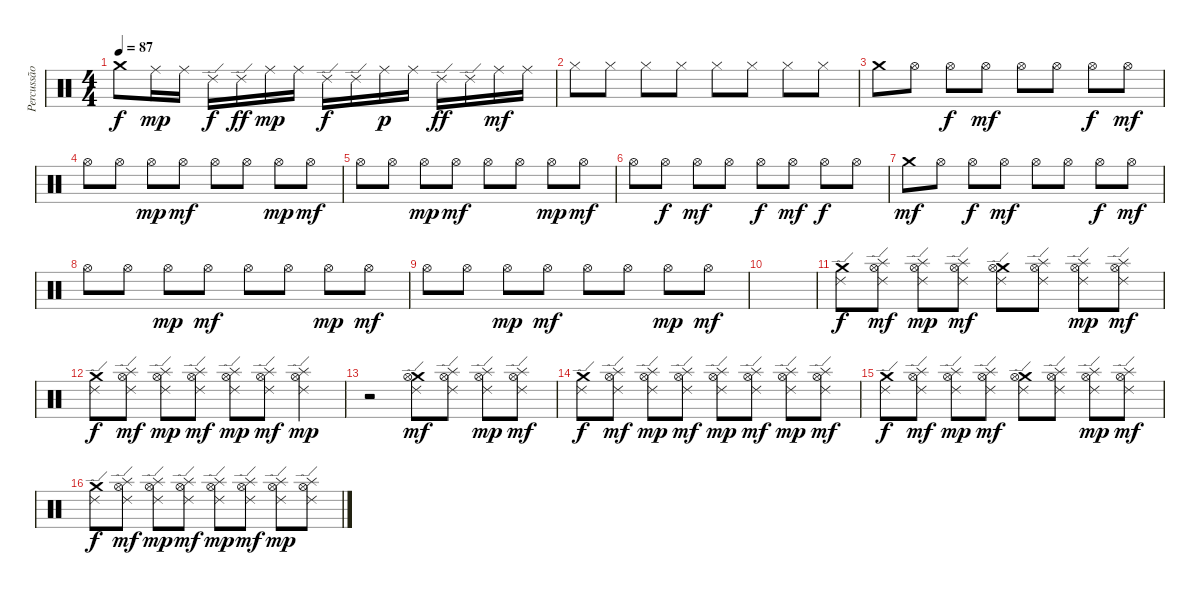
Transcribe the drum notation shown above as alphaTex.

\track ("Percussão" "Percussão") {instrument percussion}
\staff {score}
\articulation defaults
\ts (4 4)
\tempo 87
\clef neutral
\ks c "Crash medium (hit)".8{dy f} "Ride (middle)".16{dy mp} "Ride (middle)".16 "Ride (edge) 2".16{dy f} "Ride (edge) 2".16{dy ff} "Ride (middle)".16{dy mp} "Ride (middle)".16 "Ride (edge) 2".16{dy f} "Ride (edge) 2".16 "Ride (middle)".16{dy p} "Ride (middle)".16 "Ride (edge) 2".16{dy ff} "Ride (edge) 2".16 "Ride (middle)".16{dy mf} "Ride (middle)".16
|
"Hi-Hat (closed)".8 "Hi-Hat (closed)".8 "Hi-Hat (closed)".8 "Hi-Hat (closed)".8 "Hi-Hat (closed)".8 "Hi-Hat (closed)".8 "Hi-Hat (closed)".8 "Hi-Hat (closed)".8 |
"Crash medium (hit)".8 "Hi-Hat (open)".8 "Hi-Hat (open)".8{dy f} "Hi-Hat (open)".8{dy mf} "Hi-Hat (open)".8 "Hi-Hat (open)".8 "Hi-Hat (open)".8{dy f} "Hi-Hat (open)".8{dy mf} |
"Hi-Hat (open)".8 "Hi-Hat (open)".8 "Hi-Hat (open)".8{dy mp} "Hi-Hat (open)".8{dy mf} "Hi-Hat (open)".8 "Hi-Hat (open)".8 "Hi-Hat (open)".8{dy mp} "Hi-Hat (open)".8{dy mf} |
"Hi-Hat (open)".8 "Hi-Hat (open)".8 "Hi-Hat (open)".8{dy mp} "Hi-Hat (open)".8{dy mf} "Hi-Hat (open)".8 "Hi-Hat (open)".8 "Hi-Hat (open)".8{dy mp} "Hi-Hat (open)".8{dy mf} |
"Hi-Hat (open)".8 "Hi-Hat (open)".8{dy f} "Hi-Hat (open)".8{dy mf} "Hi-Hat (open)".8 "Hi-Hat (open)".8{dy f} "Hi-Hat (open)".8{dy mf} "Hi-Hat (open)".8{dy f} "Hi-Hat (open)".8 |
"Crash medium (hit)".8{dy mf} "Hi-Hat (open)".8 "Hi-Hat (open)".8{dy f} "Hi-Hat (open)".8{dy mf} "Hi-Hat (open)".8 "Hi-Hat (open)".8 "Hi-Hat (open)".8{dy f} "Hi-Hat (open)".8{dy mf} |
"Hi-Hat (open)".8 "Hi-Hat (open)".8 "Hi-Hat (open)".8{dy mp} "Hi-Hat (open)".8{dy mf} "Hi-Hat (open)".8 "Hi-Hat (open)".8 "Hi-Hat (open)".8{dy mp} "Hi-Hat (open)".8{dy mf} |
"Hi-Hat (open)".8 "Hi-Hat (open)".8 "Hi-Hat (open)".8{dy mp} "Hi-Hat (open)".8{dy mf} "Hi-Hat (open)".8 "Hi-Hat (open)".8 "Hi-Hat (open)".8{dy mp} "Hi-Hat (open)".8{dy mf} |
|
("Crash medium (hit)" "Ride (edge) 2").8{dy f} ("Splash (hit)" "Hi-Hat (open)" "Ride (edge) 2").8{dy mf} ("Splash (hit)" "Hi-Hat (open)" "Ride (edge) 2").8{dy mp} ("Splash (hit)" "Hi-Hat (open)" "Ride (edge) 2").8{dy mf} ("Crash medium (hit)" "Hi-Hat (open)" "Ride (edge) 2").8 ("Splash (hit)" "Hi-Hat (open)" "Ride (edge) 2").8 ("Splash (hit)" "Hi-Hat (open)" "Ride (edge) 2").8{dy mp} ("Splash (hit)" "Hi-Hat (open)" "Ride (edge) 2").8{dy mf} |
("Crash medium (hit)" "Ride (edge) 2").8{dy f} ("Splash (hit)" "Hi-Hat (open)" "Ride (edge) 2").8{dy mf} ("Splash (hit)" "Hi-Hat (open)" "Ride (edge) 2").8{dy mp} ("Splash (hit)" "Hi-Hat (open)" "Ride (edge) 2").8{dy mf} ("Splash (hit)" "Hi-Hat (open)" "Ride (edge) 2").8{dy mp} ("Splash (hit)" "Hi-Hat (open)" "Ride (edge) 2").8{dy mf} ("Splash (hit)" "Hi-Hat (open)" "Ride (edge) 2").4{dy mp} |
r.2 ("Crash medium (hit)" "Hi-Hat (open)" "Ride (edge) 2").8{dy mf} ("Splash (hit)" "Hi-Hat (open)" "Ride (edge) 2").8 ("Splash (hit)" "Hi-Hat (open)" "Ride (edge) 2").8{dy mp} ("Splash (hit)" "Hi-Hat (open)" "Ride (edge) 2").8{dy mf} |
("Crash medium (hit)" "Ride (edge) 2").8{dy f} ("Splash (hit)" "Hi-Hat (open)" "Ride (edge) 2").8{dy mf} ("Splash (hit)" "Hi-Hat (open)" "Ride (edge) 2").8{dy mp} ("Splash (hit)" "Hi-Hat (open)" "Ride (edge) 2").8{dy mf} ("Splash (hit)" "Hi-Hat (open)" "Ride (edge) 2").8{dy mp} ("Splash (hit)" "Hi-Hat (open)" "Ride (edge) 2").8{dy mf} ("Splash (hit)" "Hi-Hat (open)" "Ride (edge) 2").8{dy mp} ("Splash (hit)" "Hi-Hat (open)" "Ride (edge) 2").8{dy mf} |
("Crash medium (hit)" "Ride (edge) 2").8{dy f} ("Splash (hit)" "Hi-Hat (open)" "Ride (edge) 2").8{dy mf} ("Splash (hit)" "Hi-Hat (open)" "Ride (edge) 2").8{dy mp} ("Splash (hit)" "Hi-Hat (open)" "Ride (edge) 2").8{dy mf} ("Crash medium (hit)" "Hi-Hat (open)" "Ride (edge) 2").8 ("Splash (hit)" "Hi-Hat (open)" "Ride (edge) 2").8 ("Splash (hit)" "Hi-Hat (open)" "Ride (edge) 2").8{dy mp} ("Splash (hit)" "Hi-Hat (open)" "Ride (edge) 2").8{dy mf} |
("Crash medium (hit)" "Ride (edge) 2").8{dy f} ("Splash (hit)" "Hi-Hat (open)" "Ride (edge) 2").8{dy mf} ("Splash (hit)" "Hi-Hat (open)" "Ride (edge) 2").8{dy mp} ("Splash (hit)" "Hi-Hat (open)" "Ride (edge) 2").8{dy mf} ("Splash (hit)" "Hi-Hat (open)" "Ride (edge) 2").8{dy mp} ("Splash (hit)" "Hi-Hat (open)" "Ride (edge) 2").8{dy mf} ("Splash (hit)" "Hi-Hat (open)" "Ride (edge) 2").8{dy mp} ("Splash (hit)" "Hi-Hat (open)" "Ride (edge) 2").8
